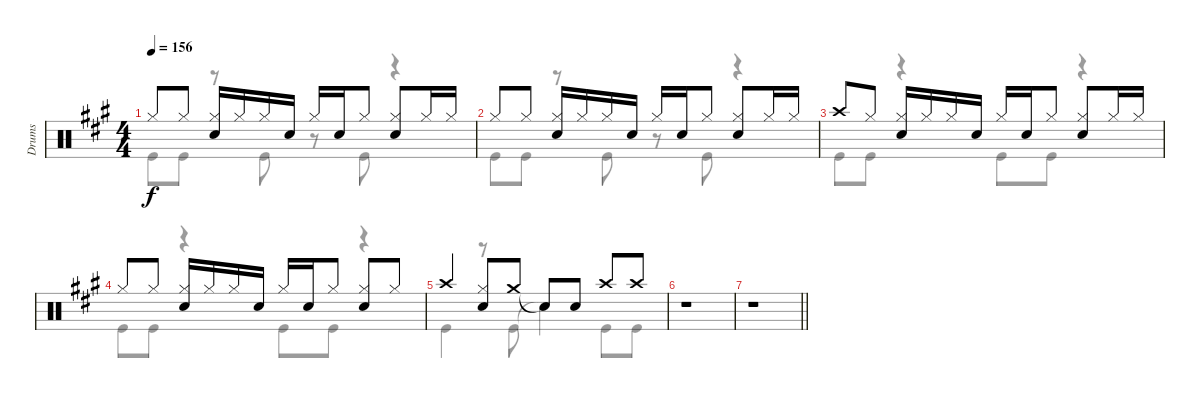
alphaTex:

\track ("Drums" "Drums") {instrument percussion}
\staff {score}
\articulation defaults
\voice
\ts (4 4)
\tempo 156
\clef neutral
\ks a "Hi-Hat (closed)".8{dy f} "Hi-Hat (closed)".8
("Hi-Hat (closed)" "Snare (hit) 2").16 "Hi-Hat (closed)".16 "Hi-Hat (closed)".16 "Snare (hit) 2".16 "Hi-Hat (closed)".16 "Snare (hit) 2".16 "Hi-Hat (closed)".8 ("Hi-Hat (closed)" "Snare (hit) 2").8 "Hi-Hat (closed)".16 "Hi-Hat (closed)".16 |
"Hi-Hat (closed)".8 "Hi-Hat (closed)".8 ("Hi-Hat (closed)" "Snare (hit) 2").16 "Hi-Hat (closed)".16 "Hi-Hat (closed)".16 "Snare (hit) 2".16 "Hi-Hat (closed)".16 "Snare (hit) 2".16 "Hi-Hat (closed)".8 ("Hi-Hat (closed)" "Snare (hit) 2").8 "Hi-Hat (closed)".16 "Hi-Hat (closed)".16 |
"Crash high (hit)".8 "Hi-Hat (closed)".8 ("Hi-Hat (closed)" "Snare (hit) 2").16 "Hi-Hat (closed)".16 "Hi-Hat (closed)".16 "Snare (hit) 2".16 "Hi-Hat (closed)".16 "Snare (hit) 2".16 "Hi-Hat (closed)".8 ("Hi-Hat (closed)" "Snare (hit) 2").8 "Hi-Hat (closed)".16 "Hi-Hat (closed)".16 |
"Hi-Hat (closed)".8 "Hi-Hat (closed)".8 ("Hi-Hat (closed)" "Snare (hit) 2").16 "Hi-Hat (closed)".16 "Hi-Hat (closed)".16 "Snare (hit) 2".16 "Hi-Hat (closed)".16 "Snare (hit) 2".16 "Hi-Hat (closed)".8 ("Hi-Hat (closed)" "Snare (hit) 2").8 "Hi-Hat (closed)".8 |
"Crash high (hit)".4 ("Hi-Hat (closed)" "Snare (hit) 2").8 "Crash medium (hit)".8 "Snare (hit)"{t}.8 "Snare (hit) 2".8 "Crash high (hit)".8 "Crash high (hit)".8 |
r.1 |
\barLineRight lightlight
r.1
\voice
\clef neutral
\ottava regular
\simile none
\ks a "Kick (hit)".8{dy f} "Kick (hit)".8
r.8 "Kick (hit)".8 r.8 "Kick (hit)".8 r.4 |
"Kick (hit)".8 "Kick (hit)".8 r.8 "Kick (hit)".8 r.8 "Kick (hit)".8 r.4 |
"Kick (hit)".8 "Kick (hit)".8 r.4 "Kick (hit)".8 "Kick (hit)".8 r.4 |
"Kick (hit)".8 "Kick (hit)".8 r.4 "Kick (hit)".8 "Kick (hit)".8 r.4 |
"Kick (hit)".4 r.8 "Kick (hit)".8 "Snare (hit)"{t}.4 "Kick (hit)".8 "Kick (hit)".8 |
r.1 |
\barLineRight lightlight
r.1
